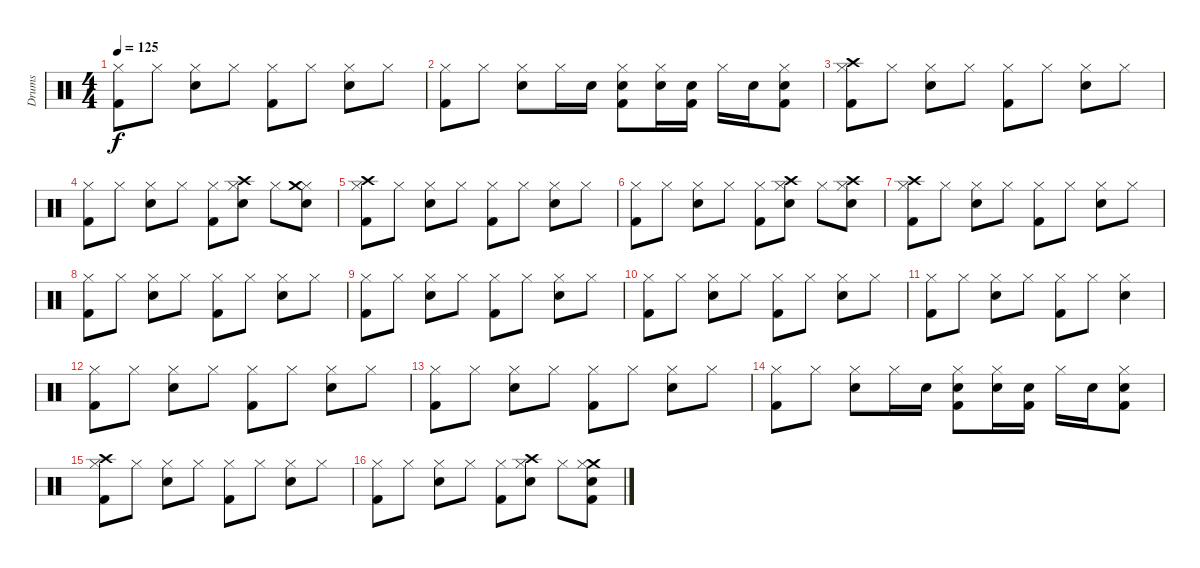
\track ("Drums" "Drums") {instrument percussion}
\staff {score}
\articulation defaults
\ts (4 4)
\tempo 125
\clef neutral
\ks c
("Hi-Hat (closed)" "Kick (hit) 2").8{dy f} "Hi-Hat (closed)".8 ("Hi-Hat (closed)" "Snare (hit) 2").8 "Hi-Hat (closed)".8 ("Hi-Hat (closed)" "Kick (hit) 2").8 "Hi-Hat (closed)".8 ("Hi-Hat (closed)" "Snare (hit) 2").8 "Hi-Hat (closed)".8 |
("Kick (hit) 2" "Hi-Hat (closed)").8 "Hi-Hat (closed)".8 ("Snare (hit) 2" "Hi-Hat (closed)").8 "Hi-Hat (closed)".16 "Snare (hit) 2".16 ("Kick (hit) 2" "Hi-Hat (closed)" "Snare (hit) 2").8 ("Hi-Hat (closed)" "Snare (hit) 2").16 ("Kick (hit) 2" "Snare (hit) 2").16 "Hi-Hat (closed)".16 "Snare (hit) 2".16 ("Kick (hit) 2" "Snare (hit) 2" "Hi-Hat (closed)").8 |
("Crash high (hit)" "Hi-Hat (closed)" "Kick (hit) 2").8 "Hi-Hat (closed)".8 ("Hi-Hat (closed)" "Snare (hit) 2").8 "Hi-Hat (closed)".8 ("Hi-Hat (closed)" "Kick (hit) 2").8 "Hi-Hat (closed)".8 ("Hi-Hat (closed)" "Snare (hit) 2").8 "Hi-Hat (closed)".8 |
("Hi-Hat (closed)" "Kick (hit) 2").8 "Hi-Hat (closed)".8 ("Hi-Hat (closed)" "Snare (hit) 2").8 "Hi-Hat (closed)".8 ("Hi-Hat (closed)" "Kick (hit) 2").8 ("Hi-Hat (closed)" "Crash high (hit)" "Snare (hit) 2").8 "Hi-Hat (closed)".8 ("Hi-Hat (closed)" "Crash medium (hit)" "Snare (hit) 2").8 |
("Crash high (hit)" "Hi-Hat (closed)" "Kick (hit) 2").8 "Hi-Hat (closed)".8 ("Hi-Hat (closed)" "Snare (hit) 2").8 "Hi-Hat (closed)".8 ("Hi-Hat (closed)" "Kick (hit) 2").8 "Hi-Hat (closed)".8 ("Hi-Hat (closed)" "Snare (hit) 2").8 "Hi-Hat (closed)".8 |
("Hi-Hat (closed)" "Kick (hit) 2").8 "Hi-Hat (closed)".8 ("Hi-Hat (closed)" "Snare (hit) 2").8 "Hi-Hat (closed)".8 ("Hi-Hat (closed)" "Kick (hit) 2").8 ("Hi-Hat (closed)" "Crash high (hit)" "Snare (hit) 2").8 "Hi-Hat (closed)".8 ("Hi-Hat (closed)" "Crash high (hit)" "Snare (hit) 2").8 |
("Hi-Hat (closed)" "Kick (hit) 2" "Crash high (hit)").8 "Hi-Hat (closed)".8 ("Hi-Hat (closed)" "Snare (hit) 2").8 "Hi-Hat (closed)".8 ("Hi-Hat (closed)" "Kick (hit) 2").8 "Hi-Hat (closed)".8 ("Hi-Hat (closed)" "Snare (hit) 2").8 "Hi-Hat (closed)".8 |
("Hi-Hat (closed)" "Kick (hit) 2").8 "Hi-Hat (closed)".8 ("Hi-Hat (closed)" "Snare (hit) 2").8 "Hi-Hat (closed)".8 ("Hi-Hat (closed)" "Kick (hit) 2").8 "Hi-Hat (closed)".8 ("Hi-Hat (closed)" "Snare (hit) 2").8 "Hi-Hat (closed)".8 |
("Hi-Hat (closed)" "Kick (hit) 2").8 "Hi-Hat (closed)".8 ("Hi-Hat (closed)" "Snare (hit) 2").8 "Hi-Hat (closed)".8 ("Hi-Hat (closed)" "Kick (hit) 2").8 "Hi-Hat (closed)".8 ("Hi-Hat (closed)" "Snare (hit) 2").8 "Hi-Hat (closed)".8 |
("Hi-Hat (closed)" "Kick (hit) 2").8 "Hi-Hat (closed)".8 ("Hi-Hat (closed)" "Snare (hit) 2").8 "Hi-Hat (closed)".8 ("Hi-Hat (closed)" "Kick (hit) 2").8 "Hi-Hat (closed)".8 ("Hi-Hat (closed)" "Snare (hit) 2").8 "Hi-Hat (closed)".8 |
("Hi-Hat (closed)" "Kick (hit) 2").8 "Hi-Hat (closed)".8 ("Hi-Hat (closed)" "Snare (hit) 2").8 "Hi-Hat (closed)".8 ("Hi-Hat (closed)" "Kick (hit) 2").8 "Hi-Hat (closed)".8 ("Hi-Hat (closed)" "Snare (hit) 2").4 |
("Hi-Hat (closed)" "Kick (hit) 2").8 "Hi-Hat (closed)".8 ("Hi-Hat (closed)" "Snare (hit) 2").8 "Hi-Hat (closed)".8 ("Hi-Hat (closed)" "Kick (hit) 2").8 "Hi-Hat (closed)".8 ("Hi-Hat (closed)" "Snare (hit) 2").8 "Hi-Hat (closed)".8 |
("Hi-Hat (closed)" "Kick (hit) 2").8 "Hi-Hat (closed)".8 ("Hi-Hat (closed)" "Snare (hit) 2").8 "Hi-Hat (closed)".8 ("Hi-Hat (closed)" "Kick (hit) 2").8 "Hi-Hat (closed)".8 ("Hi-Hat (closed)" "Snare (hit) 2").8 "Hi-Hat (closed)".8 |
("Hi-Hat (closed)" "Kick (hit) 2").8 "Hi-Hat (closed)".8 ("Hi-Hat (closed)" "Snare (hit) 2").8 "Hi-Hat (closed)".16 "Snare (hit) 2".16 ("Hi-Hat (closed)" "Kick (hit) 2" "Snare (hit) 2").8 ("Hi-Hat (closed)" "Snare (hit) 2").16 ("Kick (hit) 2" "Snare (hit) 2").16 "Hi-Hat (closed)".16 "Snare (hit) 2".16 ("Hi-Hat (closed)" "Kick (hit) 2" "Snare (hit) 2").8 |
("Hi-Hat (closed)" "Kick (hit) 2" "Crash high (hit)").8 "Hi-Hat (closed)".8 ("Hi-Hat (closed)" "Snare (hit) 2").8 "Hi-Hat (closed)".8 ("Hi-Hat (closed)" "Kick (hit) 2").8 "Hi-Hat (closed)".8 ("Hi-Hat (closed)" "Snare (hit) 2").8 "Hi-Hat (closed)".8 |
("Hi-Hat (closed)" "Kick (hit) 2").8 "Hi-Hat (closed)".8 ("Hi-Hat (closed)" "Snare (hit) 2").8 "Hi-Hat (closed)".8 ("Hi-Hat (closed)" "Kick (hit) 2").8 ("Hi-Hat (closed)" "Snare (hit) 2" "Crash high (hit)").8 "Hi-Hat (closed)".8 ("Crash medium (hit)" "Hi-Hat (closed)" "Kick (hit) 2" "Snare (hit) 2").8
